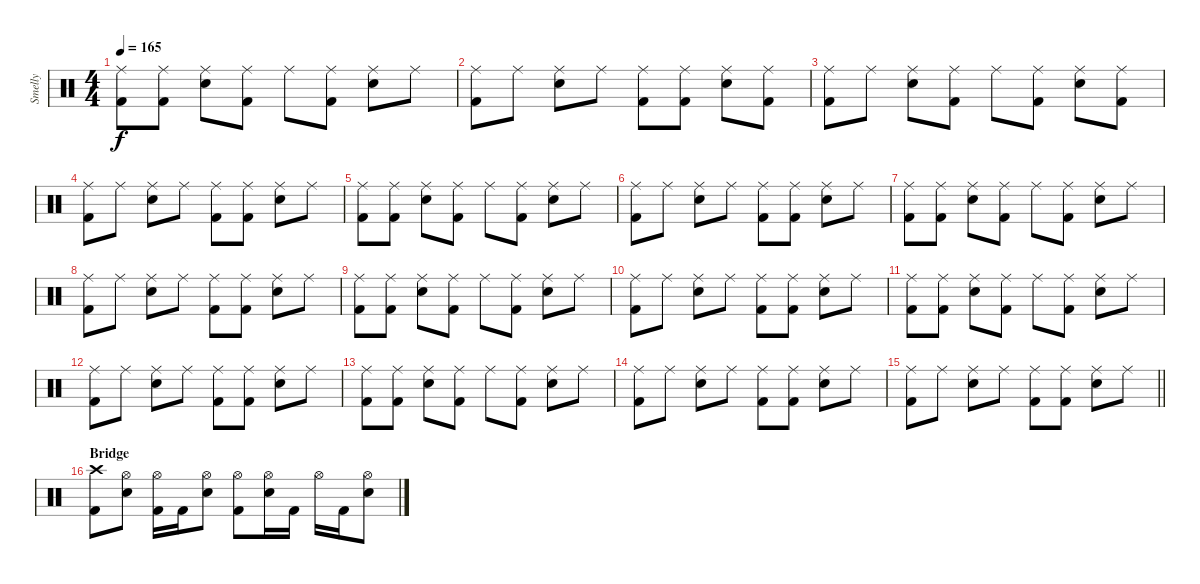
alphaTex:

\track ("Smelly" "Smelly") {instrument percussion}
\staff {score}
\articulation defaults
\ts (4 4)
\tempo 165
\clef neutral
\ks c
("Ride (middle)" "Kick (hit) 2").8{dy f} ("Ride (middle)" "Kick (hit) 2").8 ("Ride (middle)" "Electric Snare (hit)").8 ("Ride (middle)" "Kick (hit) 2").8 "Ride (middle)".8 ("Ride (middle)" "Kick (hit) 2").8 ("Ride (middle)" "Electric Snare (hit)").8 "Ride (middle)".8 |
("Ride (middle)" "Kick (hit) 2").8 "Ride (middle)".8 ("Ride (middle)" "Electric Snare (hit)").8 "Ride (middle)".8 ("Ride (middle)" "Kick (hit) 2").8 ("Ride (middle)" "Kick (hit) 2").8 ("Ride (middle)" "Electric Snare (hit)").8 ("Ride (middle)" "Kick (hit) 2").8 |
("Ride (middle)" "Kick (hit) 2").8 "Ride (middle)".8 ("Ride (middle)" "Electric Snare (hit)").8 ("Ride (middle)" "Kick (hit) 2").8 "Ride (middle)".8 ("Ride (middle)" "Kick (hit) 2").8 ("Ride (middle)" "Electric Snare (hit)").8 ("Ride (middle)" "Kick (hit) 2").8 |
("Ride (middle)" "Kick (hit) 2").8 "Ride (middle)".8 ("Ride (middle)" "Electric Snare (hit)").8 "Ride (middle)".8 ("Ride (middle)" "Kick (hit) 2").8 ("Ride (middle)" "Kick (hit) 2").8 ("Ride (middle)" "Electric Snare (hit)").8 "Ride (middle)".8 |
("Ride (middle)" "Kick (hit) 2").8 ("Ride (middle)" "Kick (hit) 2").8 ("Ride (middle)" "Electric Snare (hit)").8 ("Ride (middle)" "Kick (hit) 2").8 "Ride (middle)".8 ("Ride (middle)" "Kick (hit) 2").8 ("Ride (middle)" "Electric Snare (hit)").8 "Ride (middle)".8 |
("Ride (middle)" "Kick (hit) 2").8 "Ride (middle)".8 ("Ride (middle)" "Electric Snare (hit)").8 "Ride (middle)".8 ("Ride (middle)" "Kick (hit) 2").8 ("Ride (middle)" "Kick (hit) 2").8 ("Ride (middle)" "Electric Snare (hit)").8 "Ride (middle)".8 |
("Ride (middle)" "Kick (hit) 2").8 ("Ride (middle)" "Kick (hit) 2").8 ("Ride (middle)" "Electric Snare (hit)").8 ("Ride (middle)" "Kick (hit) 2").8 "Ride (middle)".8 ("Ride (middle)" "Kick (hit) 2").8 ("Ride (middle)" "Electric Snare (hit)").8 "Ride (middle)".8 |
("Ride (middle)" "Kick (hit) 2").8 "Ride (middle)".8 ("Ride (middle)" "Electric Snare (hit)").8 "Ride (middle)".8 ("Ride (middle)" "Kick (hit) 2").8 ("Ride (middle)" "Kick (hit) 2").8 ("Ride (middle)" "Electric Snare (hit)").8 "Ride (middle)".8 |
("Ride (middle)" "Kick (hit) 2").8 ("Ride (middle)" "Kick (hit) 2").8 ("Ride (middle)" "Electric Snare (hit)").8 ("Ride (middle)" "Kick (hit) 2").8 "Ride (middle)".8 ("Ride (middle)" "Kick (hit) 2").8 ("Ride (middle)" "Electric Snare (hit)").8 "Ride (middle)".8 |
("Ride (middle)" "Kick (hit) 2").8 "Ride (middle)".8 ("Ride (middle)" "Electric Snare (hit)").8 "Ride (middle)".8 ("Ride (middle)" "Kick (hit) 2").8 ("Ride (middle)" "Kick (hit) 2").8 ("Ride (middle)" "Electric Snare (hit)").8 "Ride (middle)".8 |
("Ride (middle)" "Kick (hit) 2").8 ("Ride (middle)" "Kick (hit) 2").8 ("Ride (middle)" "Electric Snare (hit)").8 ("Ride (middle)" "Kick (hit) 2").8 "Ride (middle)".8 ("Ride (middle)" "Kick (hit) 2").8 ("Ride (middle)" "Electric Snare (hit)").8 "Ride (middle)".8 |
("Ride (middle)" "Kick (hit) 2").8 "Ride (middle)".8 ("Ride (middle)" "Electric Snare (hit)").8 "Ride (middle)".8 ("Ride (middle)" "Kick (hit) 2").8 ("Ride (middle)" "Kick (hit) 2").8 ("Ride (middle)" "Electric Snare (hit)").8 "Ride (middle)".8 |
("Ride (middle)" "Kick (hit) 2").8 ("Ride (middle)" "Kick (hit) 2").8 ("Ride (middle)" "Electric Snare (hit)").8 ("Ride (middle)" "Kick (hit) 2").8 "Ride (middle)".8 ("Ride (middle)" "Kick (hit) 2").8 ("Ride (middle)" "Electric Snare (hit)").8 "Ride (middle)".8 |
("Ride (middle)" "Kick (hit) 2").8 "Ride (middle)".8 ("Ride (middle)" "Electric Snare (hit)").8 "Ride (middle)".8 ("Ride (middle)" "Kick (hit) 2").8 ("Ride (middle)" "Kick (hit) 2").8 ("Ride (middle)" "Electric Snare (hit)").8 "Ride (middle)".8 |
\barLineRight lightlight
("Ride (middle)" "Kick (hit) 2").8 "Ride (middle)".8 ("Ride (middle)" "Electric Snare (hit)").8 "Ride (middle)".8 ("Ride (middle)" "Kick (hit) 2").8 ("Ride (middle)" "Kick (hit) 2").8 ("Ride (middle)" "Electric Snare (hit)").8 "Ride (middle)".8 |
\section ("" "Bridge")
("Crash high (hit)" "Kick (hit) 2").8 ("Hi-Hat (open)" "Electric Snare (hit)").8 ("Hi-Hat (open)" "Kick (hit) 2").16 "Kick (hit) 2".16 ("Hi-Hat (open)" "Electric Snare (hit)").8 ("Hi-Hat (open)" "Kick (hit) 2").8 ("Hi-Hat (open)" "Electric Snare (hit)").16 "Kick (hit) 2".16 "Hi-Hat (open)".16 "Kick (hit) 2".16 ("Hi-Hat (open)" "Electric Snare (hit)").8
